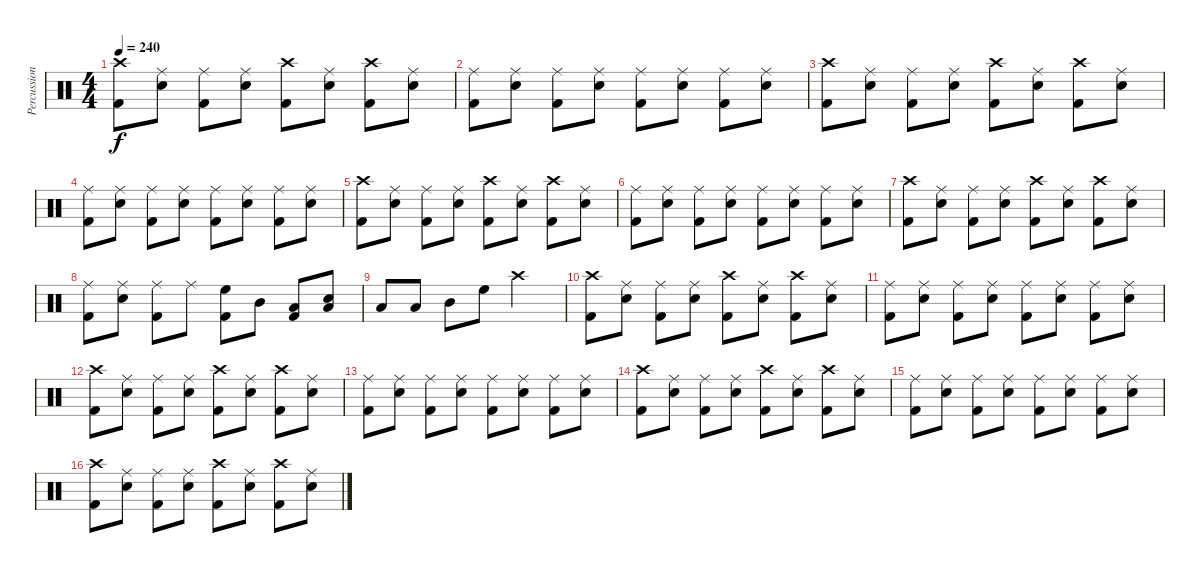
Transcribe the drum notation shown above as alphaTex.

\track ("Percussion" "Percussion") {instrument percussion}
\staff {score}
\articulation defaults
\ts (4 4)
\tempo 240
\clef neutral
\ks c
("Kick (hit) 2" "Crash high (hit)").8{dy f} ("Snare (hit) 2" "Ride (middle)").8 ("Kick (hit) 2" "Ride (middle)").8 ("Snare (hit) 2" "Ride (middle)").8 ("Kick (hit) 2" "Crash high (hit)").8 ("Snare (hit) 2" "Ride (middle)").8 ("Kick (hit) 2" "Crash high (hit)").8 ("Snare (hit) 2" "Ride (middle)").8 |
("Kick (hit) 2" "Ride (middle)").8 ("Snare (hit) 2" "Ride (middle)").8 ("Kick (hit) 2" "Ride (middle)").8 ("Snare (hit) 2" "Ride (middle)").8 ("Kick (hit) 2" "Ride (middle)").8 ("Snare (hit) 2" "Ride (middle)").8 ("Kick (hit) 2" "Ride (middle)").8 ("Snare (hit) 2" "Ride (middle)").8 |
("Kick (hit) 2" "Crash high (hit)").8 ("Snare (hit) 2" "Ride (middle)").8 ("Kick (hit) 2" "Ride (middle)").8 ("Snare (hit) 2" "Ride (middle)").8 ("Kick (hit) 2" "Crash high (hit)").8 ("Snare (hit) 2" "Ride (middle)").8 ("Kick (hit) 2" "Crash high (hit)").8 ("Snare (hit) 2" "Ride (middle)").8 |
("Kick (hit) 2" "Ride (middle)").8 ("Snare (hit) 2" "Ride (middle)").8 ("Kick (hit) 2" "Ride (middle)").8 ("Snare (hit) 2" "Ride (middle)").8 ("Kick (hit) 2" "Ride (middle)").8 ("Snare (hit) 2" "Ride (middle)").8 ("Kick (hit) 2" "Ride (middle)").8 ("Snare (hit) 2" "Ride (middle)").8 |
("Kick (hit) 2" "Crash high (hit)").8 ("Snare (hit) 2" "Ride (middle)").8 ("Kick (hit) 2" "Ride (middle)").8 ("Snare (hit) 2" "Ride (middle)").8 ("Kick (hit) 2" "Crash high (hit)").8 ("Snare (hit) 2" "Ride (middle)").8 ("Kick (hit) 2" "Crash high (hit)").8 ("Snare (hit) 2" "Ride (middle)").8 |
("Kick (hit) 2" "Ride (middle)").8 ("Snare (hit) 2" "Ride (middle)").8 ("Kick (hit) 2" "Ride (middle)").8 ("Snare (hit) 2" "Ride (middle)").8 ("Kick (hit) 2" "Ride (middle)").8 ("Snare (hit) 2" "Ride (middle)").8 ("Kick (hit) 2" "Ride (middle)").8 ("Snare (hit) 2" "Ride (middle)").8 |
("Kick (hit) 2" "Crash high (hit)").8 ("Snare (hit) 2" "Ride (middle)").8 ("Kick (hit) 2" "Ride (middle)").8 ("Snare (hit) 2" "Ride (middle)").8 ("Kick (hit) 2" "Crash high (hit)").8 ("Snare (hit) 2" "Ride (middle)").8 ("Kick (hit) 2" "Crash high (hit)").8 ("Snare (hit) 2" "Ride (middle)").8 |
("Kick (hit) 2" "Ride (middle)").8 ("Snare (hit) 2" "Ride (middle)").8 ("Kick (hit) 2" "Ride (middle)").8 "Ride (middle)".8 ("Kick (hit) 2" "High Floor Tom (hit)").8 "Mid Tom (hit)".8 ("Kick (hit) 2" "Low Tom (hit)").8 ("Snare (hit) 2" "Low Floor Tom (hit)").8 |
"Low Floor Tom (hit)".8 "Low Tom (hit)".8 "Mid Tom (hit)".8 "High Floor Tom (hit)".8 "Crash high (hit)".2 |
("Kick (hit) 2" "Crash high (hit)").8 ("Snare (hit) 2" "Ride (middle)").8 ("Kick (hit) 2" "Ride (middle)").8 ("Snare (hit) 2" "Ride (middle)").8 ("Kick (hit) 2" "Crash high (hit)").8 ("Snare (hit) 2" "Ride (middle)").8 ("Kick (hit) 2" "Crash high (hit)").8 ("Snare (hit) 2" "Ride (middle)").8 |
("Kick (hit) 2" "Ride (middle)").8 ("Snare (hit) 2" "Ride (middle)").8 ("Kick (hit) 2" "Ride (middle)").8 ("Snare (hit) 2" "Ride (middle)").8 ("Kick (hit) 2" "Ride (middle)").8 ("Snare (hit) 2" "Ride (middle)").8 ("Kick (hit) 2" "Ride (middle)").8 ("Snare (hit) 2" "Ride (middle)").8 |
("Kick (hit) 2" "Crash high (hit)").8 ("Snare (hit) 2" "Ride (middle)").8 ("Kick (hit) 2" "Ride (middle)").8 ("Snare (hit) 2" "Ride (middle)").8 ("Kick (hit) 2" "Crash high (hit)").8 ("Snare (hit) 2" "Ride (middle)").8 ("Kick (hit) 2" "Crash high (hit)").8 ("Snare (hit) 2" "Ride (middle)").8 |
("Kick (hit) 2" "Ride (middle)").8 ("Snare (hit) 2" "Ride (middle)").8 ("Kick (hit) 2" "Ride (middle)").8 ("Snare (hit) 2" "Ride (middle)").8 ("Kick (hit) 2" "Ride (middle)").8 ("Snare (hit) 2" "Ride (middle)").8 ("Kick (hit) 2" "Ride (middle)").8 ("Snare (hit) 2" "Ride (middle)").8 |
("Kick (hit) 2" "Crash high (hit)").8 ("Snare (hit) 2" "Ride (middle)").8 ("Kick (hit) 2" "Ride (middle)").8 ("Snare (hit) 2" "Ride (middle)").8 ("Kick (hit) 2" "Crash high (hit)").8 ("Snare (hit) 2" "Ride (middle)").8 ("Kick (hit) 2" "Crash high (hit)").8 ("Snare (hit) 2" "Ride (middle)").8 |
("Kick (hit) 2" "Ride (middle)").8 ("Snare (hit) 2" "Ride (middle)").8 ("Kick (hit) 2" "Ride (middle)").8 ("Snare (hit) 2" "Ride (middle)").8 ("Kick (hit) 2" "Ride (middle)").8 ("Snare (hit) 2" "Ride (middle)").8 ("Kick (hit) 2" "Ride (middle)").8 ("Snare (hit) 2" "Ride (middle)").8 |
("Kick (hit) 2" "Crash high (hit)").8 ("Snare (hit) 2" "Ride (middle)").8 ("Kick (hit) 2" "Ride (middle)").8 ("Snare (hit) 2" "Ride (middle)").8 ("Kick (hit) 2" "Crash high (hit)").8 ("Snare (hit) 2" "Ride (middle)").8 ("Kick (hit) 2" "Crash high (hit)").8 ("Snare (hit) 2" "Ride (middle)").8
